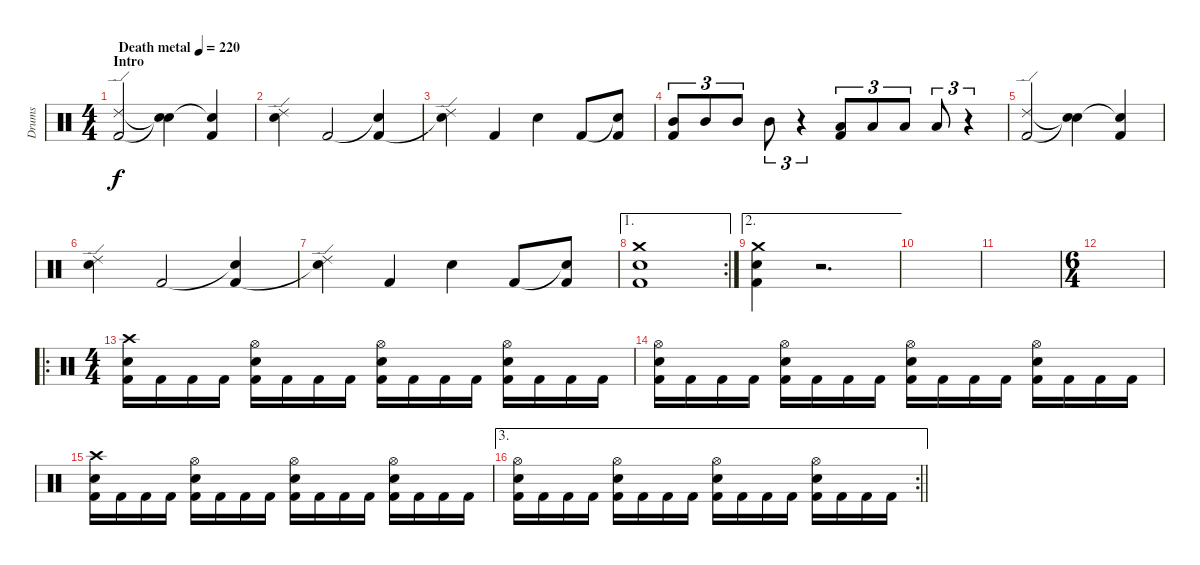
\track ("Drums" "Drums") {instrument percussion}
\staff {score}
\articulation defaults
\ts (4 4)
\section ("" "Intro")
\tempo (220 "Death metal")
\clef neutral
\ks c
("Ride (edge) 2" "Kick (hit) 2").2{dy f} ("Snare (hit)"{t} "Snare (hit)"{t}).4 ("Snare (hit)"{t} "Kick (hit) 2").4 |
("Ride (edge) 2" "Electric Snare (hit)").4 "Kick (hit) 2".2 ("Snare (hit)"{t} "Kick (hit) 2").4 |
("Ride (edge) 2" "Snare (hit)"{t}).4 "Kick (hit) 2".4 "Electric Snare (hit)".4 "Kick (hit) 2".8 ("Snare (hit)"{t} "Kick (hit) 2").8 |
("Mid Tom (hit)" "Kick (hit) 2").8{tu (3 2)} "Mid Tom (hit)".8{tu (3 2)} "Mid Tom (hit)".8{tu (3 2)} "Mid Tom (hit)".8{tu (3 2)} r.4{tu (3 2)} ("Low Tom (hit)" "Kick (hit) 2").8{tu (3 2)} "Low Tom (hit)".8{tu (3 2)} "Low Tom (hit)".8{tu (3 2)} "Low Tom (hit)".8{tu (3 2)} r.4{tu (3 2)} |
("Ride (edge) 2" "Kick (hit) 2").2 ("Snare (hit)"{t} "Snare (hit)"{t}).4 ("Snare (hit)"{t} "Kick (hit) 2").4 |
("Ride (edge) 2" "Electric Snare (hit)").4 "Kick (hit) 2".2 ("Snare (hit)"{t} "Kick (hit) 2").4 |
("Ride (edge) 2" "Snare (hit)"{t}).4 "Kick (hit) 2".4 "Electric Snare (hit)".4 "Kick (hit) 2".8 ("Snare (hit)"{t} "Kick (hit) 2").8 |
\ae 1
\rc 2
("Crash medium (hit)" "Electric Snare (hit)" "Kick (hit) 2").1 |
\ae 2
("Crash medium (hit)" "Electric Snare (hit)" "Kick (hit) 2").4 r.2{d} |
|
|
\ts (6 4)
|
\ro
\ts (4 4)
("Crash high (hit)" "Electric Snare (hit)" "Kick (hit) 2").16 "Kick (hit) 2".16 "Kick (hit) 2".16 "Kick (hit) 2".16 ("Hi-Hat (open)" "Electric Snare (hit)" "Kick (hit) 2").16 "Kick (hit) 2".16 "Kick (hit) 2".16 "Kick (hit) 2".16 ("Hi-Hat (open)" "Electric Snare (hit)" "Kick (hit) 2").16 "Kick (hit) 2".16 "Kick (hit) 2".16 "Kick (hit) 2".16 ("Hi-Hat (open)" "Electric Snare (hit)" "Kick (hit) 2").16 "Kick (hit) 2".16 "Kick (hit) 2".16 "Kick (hit) 2".16 |
("Hi-Hat (open)" "Electric Snare (hit)" "Kick (hit) 2").16 "Kick (hit) 2".16 "Kick (hit) 2".16 "Kick (hit) 2".16 ("Hi-Hat (open)" "Electric Snare (hit)" "Kick (hit) 2").16 "Kick (hit) 2".16 "Kick (hit) 2".16 "Kick (hit) 2".16 ("Hi-Hat (open)" "Electric Snare (hit)" "Kick (hit) 2").16 "Kick (hit) 2".16 "Kick (hit) 2".16 "Kick (hit) 2".16 ("Hi-Hat (open)" "Electric Snare (hit)" "Kick (hit) 2").16 "Kick (hit) 2".16 "Kick (hit) 2".16 "Kick (hit) 2".16 |
("Crash high (hit)" "Electric Snare (hit)" "Kick (hit) 2").16 "Kick (hit) 2".16 "Kick (hit) 2".16 "Kick (hit) 2".16 ("Hi-Hat (open)" "Electric Snare (hit)" "Kick (hit) 2").16 "Kick (hit) 2".16 "Kick (hit) 2".16 "Kick (hit) 2".16 ("Hi-Hat (open)" "Electric Snare (hit)" "Kick (hit) 2").16 "Kick (hit) 2".16 "Kick (hit) 2".16 "Kick (hit) 2".16 ("Hi-Hat (open)" "Electric Snare (hit)" "Kick (hit) 2").16 "Kick (hit) 2".16 "Kick (hit) 2".16 "Kick (hit) 2".16 |
\ae 3
\rc 2
\barLineRight lightlight
("Hi-Hat (open)" "Electric Snare (hit)" "Kick (hit) 2").16 "Kick (hit) 2".16 "Kick (hit) 2".16 "Kick (hit) 2".16 ("Hi-Hat (open)" "Electric Snare (hit)" "Kick (hit) 2").16 "Kick (hit) 2".16 "Kick (hit) 2".16 "Kick (hit) 2".16 ("Hi-Hat (open)" "Electric Snare (hit)" "Kick (hit) 2").16 "Kick (hit) 2".16 "Kick (hit) 2".16 "Kick (hit) 2".16 ("Hi-Hat (open)" "Electric Snare (hit)" "Kick (hit) 2").16 "Kick (hit) 2".16 "Kick (hit) 2".16 "Kick (hit) 2".16
